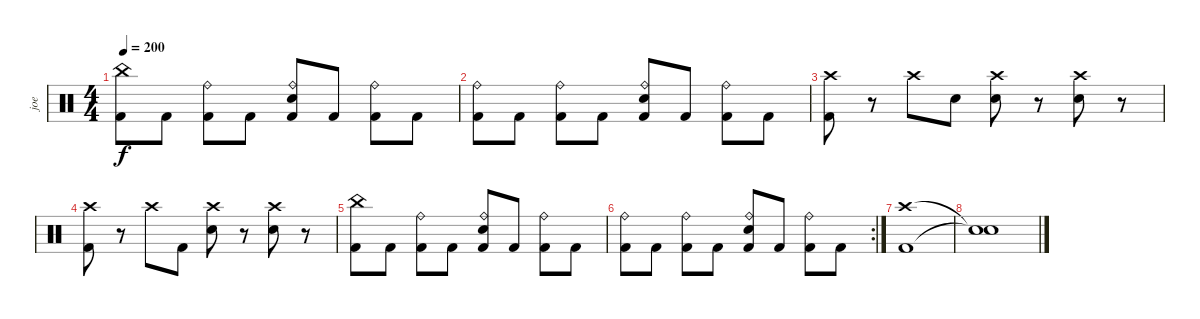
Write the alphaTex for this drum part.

\track ("joe" "joe") {instrument percussion}
\staff {score}
\articulation defaults
\ts (4 4)
\tempo 200
\clef neutral
\ks c
("China (hit)" "Kick (hit) 2").8{dy f} "Kick (hit) 2".8 ("Ride (bell)" "Kick (hit) 2").8 "Kick (hit) 2".8 ("Ride (bell)" "Snare (hit) 2" "Kick (hit) 2").8 "Kick (hit) 2".8 ("Ride (bell)" "Kick (hit) 2").8 "Kick (hit) 2".8 |
("Ride (bell)" "Kick (hit) 2").8 "Kick (hit) 2".8 ("Ride (bell)" "Kick (hit) 2").8 "Kick (hit) 2".8 ("Ride (bell)" "Snare (hit) 2" "Kick (hit) 2").8 "Kick (hit) 2".8 ("Ride (bell)" "Kick (hit) 2").8 "Kick (hit) 2".8 |
("Crash high (hit)" "Kick (hit) 2").8 r.8 "Crash high (hit)".8 "Snare (hit) 2".8 ("Crash high (hit)" "Snare (hit) 2").8 r.8 ("Crash high (hit)" "Snare (hit) 2").8 r.8 |
("Crash high (hit)" "Kick (hit) 2").8 r.8 "Crash high (hit)".8 "Kick (hit) 2".8 ("Crash high (hit)" "Snare (hit) 2").8 r.8 ("Crash high (hit)" "Snare (hit) 2").8 r.8 |
("China (hit)" "Kick (hit) 2").8 "Kick (hit) 2".8 ("Ride (bell)" "Kick (hit) 2").8 "Kick (hit) 2".8 ("Ride (bell)" "Snare (hit) 2" "Kick (hit) 2").8 "Kick (hit) 2".8 ("Ride (bell)" "Kick (hit) 2").8 "Kick (hit) 2".8 |
\rc 2
("Ride (bell)" "Kick (hit) 2").8 "Kick (hit) 2".8 ("Ride (bell)" "Kick (hit) 2").8 "Kick (hit) 2".8 ("Ride (bell)" "Snare (hit) 2" "Kick (hit) 2").8 "Kick (hit) 2".8 ("Ride (bell)" "Kick (hit) 2").8 "Kick (hit) 2".8 |
("Crash high (hit)" "Kick (hit) 2").1 |
("Snare (hit)"{t} "Snare (hit)"{t}).1
